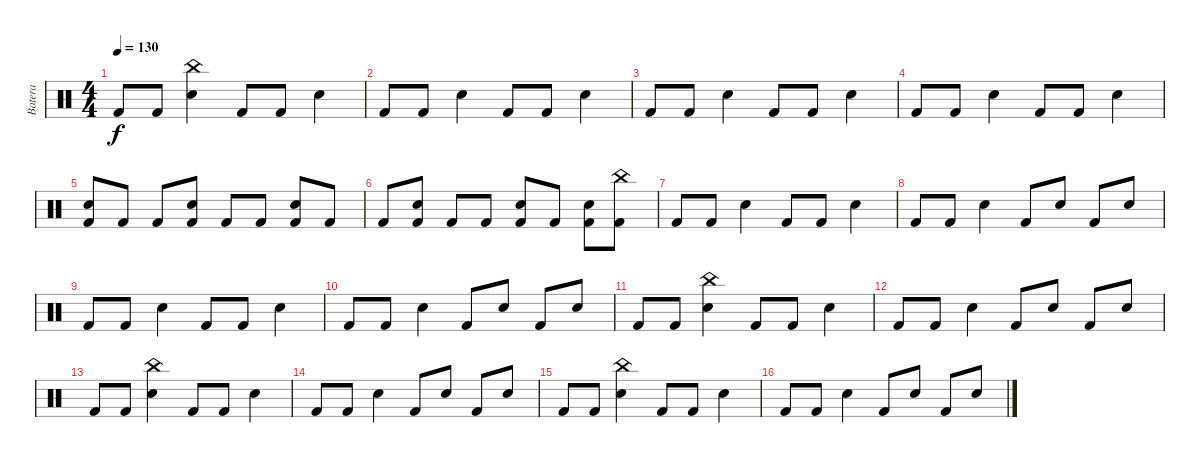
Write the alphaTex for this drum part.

\track ("Batera" "Batera") {instrument percussion}
\staff {score}
\articulation defaults
\ts (4 4)
\tempo 130
\clef neutral
\ks c "Kick (hit) 2".8{dy f} "Kick (hit) 2".8
("Snare (hit) 2" "China (hit)").4 "Kick (hit) 2".8 "Kick (hit) 2".8 "Snare (hit) 2".4 |
"Kick (hit) 2".8 "Kick (hit) 2".8 "Snare (hit) 2".4 "Kick (hit) 2".8 "Kick (hit) 2".8 "Snare (hit) 2".4 |
"Kick (hit) 2".8 "Kick (hit) 2".8 "Snare (hit) 2".4 "Kick (hit) 2".8 "Kick (hit) 2".8 "Snare (hit) 2".4 |
"Kick (hit) 2".8 "Kick (hit) 2".8 "Snare (hit) 2".4 "Kick (hit) 2".8 "Kick (hit) 2".8 "Snare (hit) 2".4 |
("Kick (hit) 2" "Snare (hit) 2").8 "Kick (hit) 2".8 "Kick (hit) 2".8 ("Kick (hit) 2" "Snare (hit) 2").8 "Kick (hit) 2".8 "Kick (hit) 2".8 ("Kick (hit) 2" "Snare (hit) 2").8 "Kick (hit) 2".8 |
"Kick (hit) 2".8 ("Kick (hit) 2" "Snare (hit) 2").8 "Kick (hit) 2".8 "Kick (hit) 2".8 ("Kick (hit) 2" "Snare (hit) 2").8 "Kick (hit) 2".8 ("Kick (hit) 2" "Snare (hit) 2").8 ("Kick (hit) 2" "China (hit)").8 |
"Kick (hit) 2".8 "Kick (hit) 2".8 "Snare (hit) 2".4 "Kick (hit) 2".8 "Kick (hit) 2".8 "Snare (hit) 2".4 |
"Kick (hit) 2".8 "Kick (hit) 2".8 "Snare (hit) 2".4 "Kick (hit) 2".8 "Snare (hit) 2".8 "Kick (hit) 2".8 "Snare (hit) 2".8 |
"Kick (hit) 2".8 "Kick (hit) 2".8 "Snare (hit) 2".4 "Kick (hit) 2".8 "Kick (hit) 2".8 "Snare (hit) 2".4 |
"Kick (hit) 2".8 "Kick (hit) 2".8 "Snare (hit) 2".4 "Kick (hit) 2".8 "Snare (hit) 2".8 "Kick (hit) 2".8 "Snare (hit) 2".8 |
"Kick (hit) 2".8 "Kick (hit) 2".8 ("Snare (hit) 2" "China (hit)").4 "Kick (hit) 2".8 "Kick (hit) 2".8 "Snare (hit) 2".4 |
"Kick (hit) 2".8 "Kick (hit) 2".8 "Snare (hit) 2".4 "Kick (hit) 2".8 "Snare (hit) 2".8 "Kick (hit) 2".8 "Snare (hit) 2".8 |
"Kick (hit) 2".8 "Kick (hit) 2".8 ("Snare (hit) 2" "China (hit)").4 "Kick (hit) 2".8 "Kick (hit) 2".8 "Snare (hit) 2".4 |
"Kick (hit) 2".8 "Kick (hit) 2".8 "Snare (hit) 2".4 "Kick (hit) 2".8 "Snare (hit) 2".8 "Kick (hit) 2".8 "Snare (hit) 2".8 |
"Kick (hit) 2".8 "Kick (hit) 2".8 ("Snare (hit) 2" "China (hit)").4 "Kick (hit) 2".8 "Kick (hit) 2".8 "Snare (hit) 2".4 |
"Kick (hit) 2".8 "Kick (hit) 2".8 "Snare (hit) 2".4 "Kick (hit) 2".8 "Snare (hit) 2".8 "Kick (hit) 2".8 "Snare (hit) 2".8
